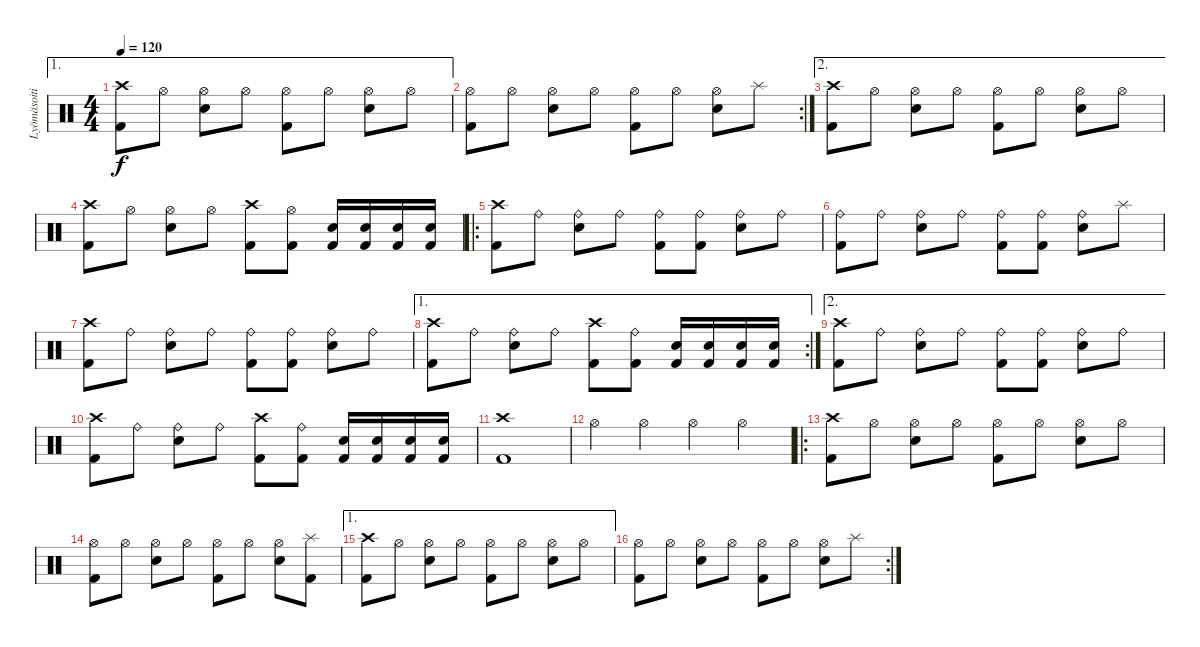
\track ("Lyömäsoitin" "Lyömäsoiti") {instrument percussion}
\staff {score}
\articulation defaults
\ae 1
\ts (4 4)
\tempo 120
\clef neutral
\ks c
("Crash high (hit)" "Kick (hit) 2").8{dy f} "Hi-Hat (open)".8 ("Hi-Hat (open)" "Snare (hit) 2").8 "Hi-Hat (open)".8 ("Hi-Hat (open)" "Kick (hit) 2").8 "Hi-Hat (open)".8 ("Hi-Hat (open)" "Snare (hit) 2").8 "Hi-Hat (open)".8 |
\rc 2
("Hi-Hat (open)" "Kick (hit) 2").8 "Hi-Hat (open)".8 ("Hi-Hat (open)" "Snare (hit) 2").8 "Hi-Hat (open)".8 ("Hi-Hat (open)" "Kick (hit) 2").8 "Hi-Hat (open)".8 ("Hi-Hat (open)" "Snare (hit) 2").8 "Splash (hit)".8 |
\ae 2
("Crash high (hit)" "Kick (hit) 2").8 "Hi-Hat (open)".8 ("Hi-Hat (open)" "Snare (hit) 2").8 "Hi-Hat (open)".8 ("Hi-Hat (open)" "Kick (hit) 2").8 "Hi-Hat (open)".8 ("Hi-Hat (open)" "Snare (hit) 2").8 "Hi-Hat (open)".8 |
("Crash high (hit)" "Kick (hit) 2").8 "Hi-Hat (open)".8 ("Hi-Hat (open)" "Snare (hit) 2").8 "Hi-Hat (open)".8 ("Crash high (hit)" "Kick (hit) 2").8 ("Hi-Hat (open)" "Kick (hit) 2").8 ("Snare (hit) 2" "Kick (hit) 2").16 ("Snare (hit) 2" "Kick (hit) 2").16 ("Snare (hit) 2" "Kick (hit) 2").16 ("Snare (hit) 2" "Kick (hit) 2").16 |
\ro
("Crash high (hit)" "Kick (hit) 2").8 "Ride (bell)".8 ("Ride (bell)" "Snare (hit) 2").8 "Ride (bell)".8 ("Ride (bell)" "Kick (hit) 2").8 ("Ride (bell)" "Kick (hit) 2").8 ("Ride (bell)" "Snare (hit) 2").8 "Ride (bell)".8 |
("Ride (bell)" "Kick (hit) 2").8 "Ride (bell)".8 ("Ride (bell)" "Snare (hit) 2").8 "Ride (bell)".8 ("Ride (bell)" "Kick (hit) 2").8 ("Ride (bell)" "Kick (hit) 2").8 ("Ride (bell)" "Snare (hit) 2").8 "Splash (hit)".8 |
("Crash high (hit)" "Kick (hit) 2").8 "Ride (bell)".8 ("Ride (bell)" "Snare (hit) 2").8 "Ride (bell)".8 ("Ride (bell)" "Kick (hit) 2").8 ("Ride (bell)" "Kick (hit) 2").8 ("Ride (bell)" "Snare (hit) 2").8 "Ride (bell)".8 |
\ae 1
\rc 2
("Crash high (hit)" "Kick (hit) 2").8 "Ride (bell)".8 ("Ride (bell)" "Snare (hit) 2").8 "Ride (bell)".8 ("Crash high (hit)" "Kick (hit) 2").8 ("Ride (bell)" "Kick (hit) 2").8 ("Snare (hit) 2" "Kick (hit) 2").16 ("Snare (hit) 2" "Kick (hit) 2").16 ("Snare (hit) 2" "Kick (hit) 2").16 ("Snare (hit) 2" "Kick (hit) 2").16 |
\ae 2
("Crash high (hit)" "Kick (hit) 2").8 "Ride (bell)".8 ("Ride (bell)" "Snare (hit) 2").8 "Ride (bell)".8 ("Ride (bell)" "Kick (hit) 2").8 ("Ride (bell)" "Kick (hit) 2").8 ("Ride (bell)" "Snare (hit) 2").8 "Ride (bell)".8 |
("Crash high (hit)" "Kick (hit) 2").8 "Ride (bell)".8 ("Ride (bell)" "Snare (hit) 2").8 "Ride (bell)".8 ("Crash high (hit)" "Kick (hit) 2").8 ("Ride (bell)" "Kick (hit) 2").8 ("Snare (hit) 2" "Kick (hit) 2").16 ("Snare (hit) 2" "Kick (hit) 2").16 ("Snare (hit) 2" "Kick (hit) 2").16 ("Snare (hit) 2" "Kick (hit) 2").16 |
("Crash high (hit)" "Kick (hit) 2").1 |
"Hi-Hat (open)".4 "Hi-Hat (open)".4 "Hi-Hat (open)".4 "Hi-Hat (open)".4 |
\ro
("Crash high (hit)" "Kick (hit) 2").8 "Hi-Hat (open)".8 ("Hi-Hat (open)" "Snare (hit) 2").8 "Hi-Hat (open)".8 ("Hi-Hat (open)" "Kick (hit) 2").8 "Hi-Hat (open)".8 ("Hi-Hat (open)" "Snare (hit) 2").8 "Hi-Hat (open)".8 |
("Hi-Hat (open)" "Kick (hit) 2").8 "Hi-Hat (open)".8 ("Hi-Hat (open)" "Snare (hit) 2").8 "Hi-Hat (open)".8 ("Hi-Hat (open)" "Kick (hit) 2").8 "Hi-Hat (open)".8 ("Hi-Hat (open)" "Snare (hit) 2").8 ("Splash (hit)" "Kick (hit) 2").8 |
\ae 1
("Crash high (hit)" "Kick (hit) 2").8 "Hi-Hat (open)".8 ("Hi-Hat (open)" "Snare (hit) 2").8 "Hi-Hat (open)".8 ("Hi-Hat (open)" "Kick (hit) 2").8 "Hi-Hat (open)".8 ("Hi-Hat (open)" "Snare (hit) 2").8 "Hi-Hat (open)".8 |
\rc 2
("Hi-Hat (open)" "Kick (hit) 2").8 "Hi-Hat (open)".8 ("Hi-Hat (open)" "Snare (hit) 2").8 "Hi-Hat (open)".8 ("Hi-Hat (open)" "Kick (hit) 2").8 "Hi-Hat (open)".8 ("Hi-Hat (open)" "Snare (hit) 2").8 "Splash (hit)".8
